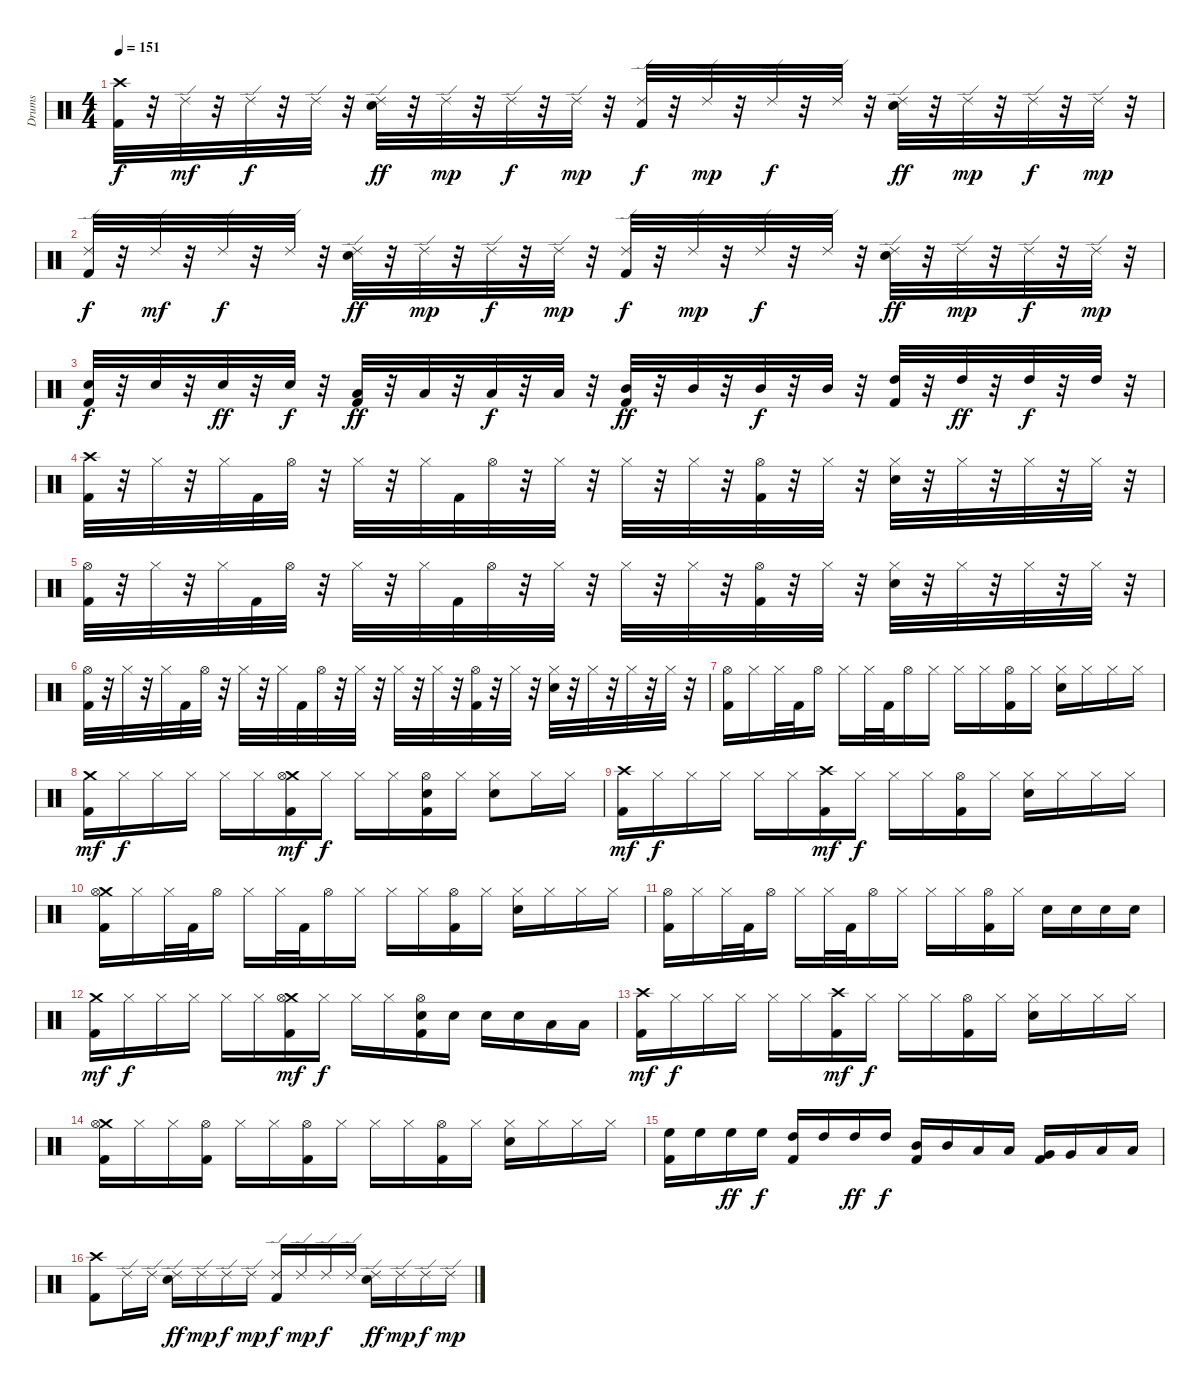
\track ("Drums" "Drums") {instrument percussion}
\staff {score}
\articulation defaults
\ts (4 4)
\tempo 151
\clef neutral
\ks c
("Crash high (hit)" "Kick (hit) 2").32{dy f} r.32 "Ride (edge) 2".32{dy mf} r.32 "Ride (edge) 2".32{dy f} r.32 "Ride (edge) 2".32 r.32 ("Ride (edge) 2" "Electric Snare (hit)").32{dy ff} r.32 "Ride (edge) 2".32{dy mp} r.32 "Ride (edge) 2".32{dy f} r.32 "Ride (edge) 2".32{dy mp} r.32 ("Ride (edge) 2" "Kick (hit) 2").32{dy f} r.32 "Ride (edge) 2".32{dy mp} r.32 "Ride (edge) 2".32{dy f} r.32 "Ride (edge) 2".32 r.32 ("Ride (edge) 2" "Electric Snare (hit)").32{dy ff} r.32 "Ride (edge) 2".32{dy mp} r.32 "Ride (edge) 2".32{dy f} r.32 "Ride (edge) 2".32{dy mp} r.32 |
("Ride (edge) 2" "Kick (hit) 2").32{dy f} r.32 "Ride (edge) 2".32{dy mf} r.32 "Ride (edge) 2".32{dy f} r.32 "Ride (edge) 2".32 r.32 ("Ride (edge) 2" "Electric Snare (hit)").32{dy ff} r.32 "Ride (edge) 2".32{dy mp} r.32 "Ride (edge) 2".32{dy f} r.32 "Ride (edge) 2".32{dy mp} r.32 ("Ride (edge) 2" "Kick (hit) 2").32{dy f} r.32 "Ride (edge) 2".32{dy mp} r.32 "Ride (edge) 2".32{dy f} r.32 "Ride (edge) 2".32 r.32 ("Ride (edge) 2" "Electric Snare (hit)").32{dy ff} r.32 "Ride (edge) 2".32{dy mp} r.32 "Ride (edge) 2".32{dy f} r.32 "Ride (edge) 2".32{dy mp} r.32 |
("Electric Snare (hit)" "Kick (hit) 2").32{dy f} r.32 "Electric Snare (hit)".32 r.32 "Electric Snare (hit)".32{dy ff} r.32 "Electric Snare (hit)".32{dy f} r.32 ("Low Tom (hit)" "Kick (hit) 2").32{dy ff} r.32 "Low Tom (hit)".32 r.32 "Low Tom (hit)".32{dy f} r.32 "Low Tom (hit)".32 r.32 ("Mid Tom (hit)" "Kick (hit) 2").32{dy ff} r.32 "Mid Tom (hit)".32 r.32 "Mid Tom (hit)".32{dy f} r.32 "Mid Tom (hit)".32 r.32 ("High Tom (hit)" "Kick (hit) 2").32 r.32 "High Tom (hit)".32{dy ff} r.32 "High Tom (hit)".32{dy f} r.32 "High Tom (hit)".32 r.32 |
("Crash high (hit)" "Kick (hit) 2").32 r.32 "Hi-Hat (closed)".32 r.32 "Hi-Hat (closed)".32 "Kick (hit) 2".32 "Hi-Hat (open)".32 r.32 "Hi-Hat (closed)".32 r.32 "Hi-Hat (closed)".32 "Kick (hit) 2".32 "Hi-Hat (open)".32 r.32 "Hi-Hat (closed)".32 r.32 "Hi-Hat (closed)".32 r.32 "Hi-Hat (closed)".32 r.32 ("Hi-Hat (open)" "Kick (hit) 2").32 r.32 "Hi-Hat (closed)".32 r.32 ("Electric Snare (hit)" "Hi-Hat (closed)").32 r.32 "Hi-Hat (closed)".32 r.32 "Hi-Hat (closed)".32 r.32 "Hi-Hat (closed)".32 r.32 |
("Hi-Hat (open)" "Kick (hit) 2").32 r.32 "Hi-Hat (closed)".32 r.32 "Hi-Hat (closed)".32 "Kick (hit) 2".32 "Hi-Hat (open)".32 r.32 "Hi-Hat (closed)".32 r.32 "Hi-Hat (closed)".32 "Kick (hit) 2".32 "Hi-Hat (open)".32 r.32 "Hi-Hat (closed)".32 r.32 "Hi-Hat (closed)".32 r.32 "Hi-Hat (closed)".32 r.32 ("Hi-Hat (open)" "Kick (hit) 2").32 r.32 "Hi-Hat (closed)".32 r.32 ("Electric Snare (hit)" "Hi-Hat (closed)").32 r.32 "Hi-Hat (closed)".32 r.32 "Hi-Hat (closed)".32 r.32 "Hi-Hat (closed)".32 r.32 |
("Hi-Hat (open)" "Kick (hit) 2").32 r.32 "Hi-Hat (closed)".32 r.32 "Hi-Hat (closed)".32 "Kick (hit) 2".32 "Hi-Hat (open)".32 r.32 "Hi-Hat (closed)".32 r.32 "Hi-Hat (closed)".32 "Kick (hit) 2".32 "Hi-Hat (open)".32 r.32 "Hi-Hat (closed)".32 r.32 "Hi-Hat (closed)".32 r.32 "Hi-Hat (closed)".32 r.32 ("Hi-Hat (open)" "Kick (hit) 2").32 r.32 "Hi-Hat (closed)".32 r.32 ("Electric Snare (hit)" "Hi-Hat (closed)").32 r.32 "Hi-Hat (closed)".32 r.32 "Hi-Hat (closed)".32 r.32 "Hi-Hat (closed)".32 r.32 |
("Hi-Hat (open)" "Kick (hit) 2").16 "Hi-Hat (closed)".16 "Hi-Hat (closed)".32 "Kick (hit) 2".32 "Hi-Hat (open)".16 "Hi-Hat (closed)".16 "Hi-Hat (closed)".32 "Kick (hit) 2".32 "Hi-Hat (open)".16 "Hi-Hat (closed)".16 "Hi-Hat (closed)".16 "Hi-Hat (closed)".16 ("Hi-Hat (open)" "Kick (hit) 2").16 "Hi-Hat (closed)".16 ("Electric Snare (hit)" "Hi-Hat (closed)").16 "Hi-Hat (closed)".16 "Hi-Hat (closed)".16 "Hi-Hat (closed)".16 |
("Crash medium (hit)" "Kick (hit) 2").16{dy mf} "Hi-Hat (closed)".16{dy f} "Hi-Hat (closed)".16 "Hi-Hat (closed)".16 "Hi-Hat (closed)".16 "Hi-Hat (closed)".16 ("Crash medium (hit)" "Hi-Hat (open)" "Kick (hit) 2").16{dy mf} "Hi-Hat (closed)".16{dy f} "Hi-Hat (closed)".16 "Hi-Hat (closed)".16 ("Electric Snare (hit)" "Hi-Hat (open)" "Kick (hit) 2").16 "Hi-Hat (closed)".16 ("Electric Snare (hit)" "Hi-Hat (closed)").8 "Hi-Hat (closed)".16 "Hi-Hat (closed)".16 |
("Crash high (hit)" "Kick (hit) 2").16{dy mf} "Hi-Hat (closed)".16{dy f} "Hi-Hat (closed)".16 "Hi-Hat (closed)".16 "Hi-Hat (closed)".16 "Hi-Hat (closed)".16 ("Crash high (hit)" "Kick (hit) 2").16{dy mf} "Hi-Hat (closed)".16{dy f} "Hi-Hat (closed)".16 "Hi-Hat (closed)".16 ("Hi-Hat (open)" "Kick (hit) 2").16 "Hi-Hat (closed)".16 ("Electric Snare (hit)" "Hi-Hat (closed)").16 "Hi-Hat (closed)".16 "Hi-Hat (closed)".16 "Hi-Hat (closed)".16 |
("Crash medium (hit)" "Hi-Hat (open)" "Kick (hit) 2").16 "Hi-Hat (closed)".16 "Hi-Hat (closed)".32 "Kick (hit) 2".32 "Hi-Hat (open)".16 "Hi-Hat (closed)".16 "Hi-Hat (closed)".32 "Kick (hit) 2".32 "Hi-Hat (open)".16 "Hi-Hat (closed)".16 "Hi-Hat (closed)".16 "Hi-Hat (closed)".16 ("Hi-Hat (open)" "Kick (hit) 2").16 "Hi-Hat (closed)".16 ("Electric Snare (hit)" "Hi-Hat (closed)").16 "Hi-Hat (closed)".16 "Hi-Hat (closed)".16 "Hi-Hat (closed)".16 |
("Hi-Hat (open)" "Kick (hit) 2").16 "Hi-Hat (closed)".16 "Hi-Hat (closed)".32 "Kick (hit) 2".32 "Hi-Hat (open)".16 "Hi-Hat (closed)".16 "Hi-Hat (closed)".32 "Kick (hit) 2".32 "Hi-Hat (open)".16 "Hi-Hat (closed)".16 "Hi-Hat (closed)".16 "Hi-Hat (closed)".16 ("Hi-Hat (open)" "Kick (hit) 2").16 "Hi-Hat (closed)".16 "Electric Snare (hit)".16 "Electric Snare (hit)".16 "Electric Snare (hit)".16 "Electric Snare (hit)".16 |
("Crash medium (hit)" "Kick (hit) 2").16{dy mf} "Hi-Hat (closed)".16{dy f} "Hi-Hat (closed)".16 "Hi-Hat (closed)".16 "Hi-Hat (closed)".16 "Hi-Hat (closed)".16 ("Crash medium (hit)" "Hi-Hat (open)" "Kick (hit) 2").16{dy mf} "Hi-Hat (closed)".16{dy f} "Hi-Hat (closed)".16 "Hi-Hat (closed)".16 ("Electric Snare (hit)" "Hi-Hat (open)" "Kick (hit) 2").16 "Electric Snare (hit)".16 "Electric Snare (hit)".16 "Electric Snare (hit)".16 "Low Tom (hit)".16 "Low Tom (hit)".16 |
("Crash high (hit)" "Kick (hit) 2").16{dy mf} "Hi-Hat (closed)".16{dy f} "Hi-Hat (closed)".16 "Hi-Hat (closed)".16 "Hi-Hat (closed)".16 "Hi-Hat (closed)".16 ("Crash high (hit)" "Kick (hit) 2").16{dy mf} "Hi-Hat (closed)".16{dy f} "Hi-Hat (closed)".16 "Hi-Hat (closed)".16 ("Hi-Hat (open)" "Kick (hit) 2").16 "Hi-Hat (closed)".16 ("Electric Snare (hit)" "Hi-Hat (closed)").16 "Hi-Hat (closed)".16 "Hi-Hat (closed)".16 "Hi-Hat (closed)".16 |
("Crash medium (hit)" "Hi-Hat (open)" "Kick (hit) 2").16 "Hi-Hat (closed)".16 "Hi-Hat (closed)".16 ("Hi-Hat (open)" "Kick (hit) 2").16 "Hi-Hat (closed)".16 "Hi-Hat (closed)".16 ("Hi-Hat (open)" "Kick (hit) 2").16 "Hi-Hat (closed)".16 "Hi-Hat (closed)".16 "Hi-Hat (closed)".16 ("Hi-Hat (open)" "Kick (hit) 2").16 "Hi-Hat (closed)".16 ("Electric Snare (hit)" "Hi-Hat (closed)").16 "Hi-Hat (closed)".16 "Hi-Hat (closed)".16 "Hi-Hat (closed)".16 |
("High Floor Tom (hit)" "Kick (hit) 2").16 "High Floor Tom (hit)".16 "High Floor Tom (hit)".16{dy ff} "High Floor Tom (hit)".16{dy f} ("High Tom (hit)" "Kick (hit) 2").16 "High Tom (hit)".16 "High Tom (hit)".16{dy ff} "High Tom (hit)".16{dy f} ("Mid Tom (hit)" "Kick (hit) 2").16 "Mid Tom (hit)".16 "Low Tom (hit)".16 "Low Tom (hit)".16 ("Very Low Tom (hit)" "Kick (hit) 2").16 "Very Low Tom (hit)".16 "Low Floor Tom (hit)".16 "Low Floor Tom (hit)".16 |
("Crash high (hit)" "Kick (hit) 2").8 "Ride (edge) 2".16 "Ride (edge) 2".16 ("Ride (edge) 2" "Electric Snare (hit)").16{dy ff} "Ride (edge) 2".16{dy mp} "Ride (edge) 2".16{dy f} "Ride (edge) 2".16{dy mp} ("Ride (edge) 2" "Kick (hit) 2").16{dy f} "Ride (edge) 2".16{dy mp} "Ride (edge) 2".16{dy f} "Ride (edge) 2".16 ("Ride (edge) 2" "Electric Snare (hit)").16{dy ff} "Ride (edge) 2".16{dy mp} "Ride (edge) 2".16{dy f} "Ride (edge) 2".16{dy mp}
